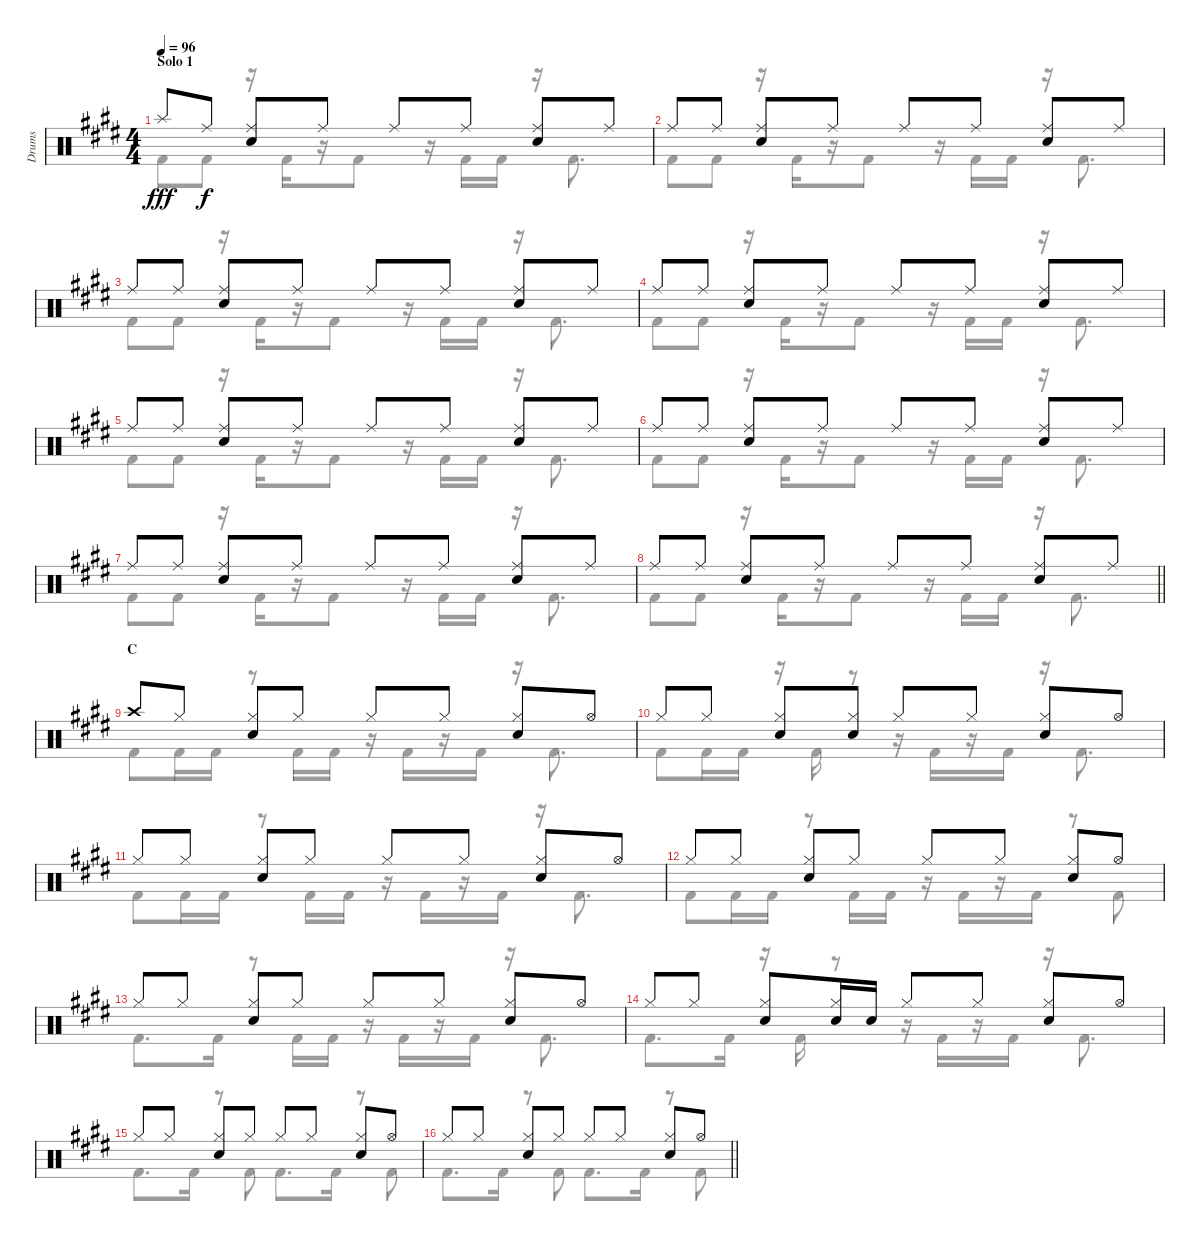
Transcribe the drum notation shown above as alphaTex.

\track ("Drums" "Drums") {instrument percussion}
\staff {score}
\articulation defaults
\voice
\ts (4 4)
\section ("" "Solo 1")
\tempo 96
\clef neutral
\ks e "Splash (hit)".8{dy fff} "Ride (middle)".8{dy f}
("Ride (middle)" "Snare (hit) 2").8 "Ride (middle)".8 "Ride (middle)".8 "Ride (middle)".8 ("Ride (middle)" "Snare (hit) 2").8 "Ride (middle)".8 |
"Ride (middle)".8 "Ride (middle)".8 ("Ride (middle)" "Snare (hit) 2").8 "Ride (middle)".8 "Ride (middle)".8 "Ride (middle)".8 ("Ride (middle)" "Snare (hit) 2").8 "Ride (middle)".8 |
"Ride (middle)".8 "Ride (middle)".8 ("Ride (middle)" "Snare (hit) 2").8 "Ride (middle)".8 "Ride (middle)".8 "Ride (middle)".8 ("Ride (middle)" "Snare (hit) 2").8 "Ride (middle)".8 |
"Ride (middle)".8 "Ride (middle)".8 ("Ride (middle)" "Snare (hit) 2").8 "Ride (middle)".8 "Ride (middle)".8 "Ride (middle)".8 ("Ride (middle)" "Snare (hit) 2").8 "Ride (middle)".8 |
"Ride (middle)".8 "Ride (middle)".8 ("Ride (middle)" "Snare (hit) 2").8 "Ride (middle)".8 "Ride (middle)".8 "Ride (middle)".8 ("Ride (middle)" "Snare (hit) 2").8 "Ride (middle)".8 |
"Ride (middle)".8 "Ride (middle)".8 ("Ride (middle)" "Snare (hit) 2").8 "Ride (middle)".8 "Ride (middle)".8 "Ride (middle)".8 ("Ride (middle)" "Snare (hit) 2").8 "Ride (middle)".8 |
"Ride (middle)".8 "Ride (middle)".8 ("Ride (middle)" "Snare (hit) 2").8 "Ride (middle)".8 "Ride (middle)".8 "Ride (middle)".8 ("Ride (middle)" "Snare (hit) 2").8 "Ride (middle)".8 |
\barLineRight lightlight "Ride (middle)".8 "Ride (middle)".8
("Ride (middle)" "Snare (hit) 2").8 "Ride (middle)".8 "Ride (middle)".8 "Ride (middle)".8 ("Ride (middle)" "Snare (hit) 2").8 "Ride (middle)".8 |
\section ("" "C")
"Crash high (hit)".8 "Hi-Hat (closed)".8 ("Hi-Hat (closed)" "Snare (hit) 2").8 "Hi-Hat (closed)".8 "Hi-Hat (closed)".8 "Hi-Hat (closed)".8 ("Hi-Hat (closed)" "Snare (hit) 2").8 "Hi-Hat (open)".8 |
"Hi-Hat (closed)".8 "Hi-Hat (closed)".8 ("Hi-Hat (closed)" "Snare (hit) 2").8 ("Hi-Hat (closed)" "Snare (hit) 2").8 "Hi-Hat (closed)".8 "Hi-Hat (closed)".8 ("Hi-Hat (closed)" "Snare (hit) 2").8 "Hi-Hat (open)".8 |
"Hi-Hat (closed)".8 "Hi-Hat (closed)".8 ("Hi-Hat (closed)" "Snare (hit) 2").8 "Hi-Hat (closed)".8 "Hi-Hat (closed)".8 "Hi-Hat (closed)".8 ("Hi-Hat (closed)" "Snare (hit) 2").8 "Hi-Hat (open)".8 |
"Hi-Hat (closed)".8 "Hi-Hat (closed)".8 ("Hi-Hat (closed)" "Snare (hit) 2").8 "Hi-Hat (closed)".8 "Hi-Hat (closed)".8 "Hi-Hat (closed)".8 ("Hi-Hat (closed)" "Snare (hit) 2").8 "Hi-Hat (open)".8 |
"Hi-Hat (closed)".8 "Hi-Hat (closed)".8 ("Hi-Hat (closed)" "Snare (hit) 2").8 "Hi-Hat (closed)".8 "Hi-Hat (closed)".8 "Hi-Hat (closed)".8 ("Hi-Hat (closed)" "Snare (hit) 2").8 "Hi-Hat (open)".8 |
"Hi-Hat (closed)".8 "Hi-Hat (closed)".8 ("Hi-Hat (closed)" "Snare (hit) 2").8 ("Hi-Hat (closed)" "Snare (hit) 2").16 "Snare (hit) 2".16 "Hi-Hat (closed)".8 "Hi-Hat (closed)".8 ("Hi-Hat (closed)" "Snare (hit) 2").8 "Hi-Hat (open)".8 |
"Hi-Hat (closed)".8 "Hi-Hat (closed)".8 ("Hi-Hat (closed)" "Snare (hit) 2").8 "Hi-Hat (closed)".8 "Hi-Hat (closed)".8 "Hi-Hat (closed)".8 ("Hi-Hat (closed)" "Snare (hit) 2").8 "Hi-Hat (open)".8 |
\barLineRight lightlight "Hi-Hat (closed)".8 "Hi-Hat (closed)".8
("Hi-Hat (closed)" "Snare (hit) 2").8 "Hi-Hat (closed)".8 "Hi-Hat (closed)".8 "Hi-Hat (closed)".8 ("Hi-Hat (closed)" "Snare (hit) 2").8 "Hi-Hat (open)".8
\voice
\clef neutral
\ottava regular
\simile none
\ks e "Kick (hit) 2".8{dy fff} "Kick (hit) 2".8
r.16 "Kick (hit) 2".16 r.16 "Kick (hit) 2".8 r.16 "Kick (hit) 2".16 "Kick (hit) 2".16 r.16 "Kick (hit) 2".8{d} |
"Kick (hit) 2".8 "Kick (hit) 2".8 r.16 "Kick (hit) 2".16 r.16 "Kick (hit) 2".8 r.16 "Kick (hit) 2".16 "Kick (hit) 2".16 r.16 "Kick (hit) 2".8{d} |
"Kick (hit) 2".8 "Kick (hit) 2".8 r.16 "Kick (hit) 2".16 r.16 "Kick (hit) 2".8 r.16 "Kick (hit) 2".16 "Kick (hit) 2".16 r.16 "Kick (hit) 2".8{d} |
"Kick (hit) 2".8 "Kick (hit) 2".8 r.16 "Kick (hit) 2".16 r.16 "Kick (hit) 2".8 r.16 "Kick (hit) 2".16 "Kick (hit) 2".16 r.16 "Kick (hit) 2".8{d} |
"Kick (hit) 2".8 "Kick (hit) 2".8 r.16 "Kick (hit) 2".16 r.16 "Kick (hit) 2".8 r.16 "Kick (hit) 2".16 "Kick (hit) 2".16 r.16 "Kick (hit) 2".8{d} |
"Kick (hit) 2".8 "Kick (hit) 2".8 r.16 "Kick (hit) 2".16 r.16 "Kick (hit) 2".8 r.16 "Kick (hit) 2".16 "Kick (hit) 2".16 r.16 "Kick (hit) 2".8{d} |
"Kick (hit) 2".8 "Kick (hit) 2".8 r.16 "Kick (hit) 2".16 r.16 "Kick (hit) 2".8 r.16 "Kick (hit) 2".16 "Kick (hit) 2".16 r.16 "Kick (hit) 2".8{d} |
\barLineRight lightlight "Kick (hit) 2".8 "Kick (hit) 2".8
r.16 "Kick (hit) 2".16 r.16 "Kick (hit) 2".8 r.16 "Kick (hit) 2".16 "Kick (hit) 2".16 r.16 "Kick (hit) 2".8{d} |
"Kick (hit) 2".8 "Kick (hit) 2".16 "Kick (hit) 2".16 r.8 "Kick (hit) 2".16 "Kick (hit) 2".16 r.16 "Kick (hit) 2".16 r.16 "Kick (hit) 2".16 r.16 "Kick (hit) 2".8{d} |
"Kick (hit) 2".8 "Kick (hit) 2".16 "Kick (hit) 2".16 r.16 "Kick (hit) 2".16 r.8 r.16 "Kick (hit) 2".16 r.16 "Kick (hit) 2".16 r.16 "Kick (hit) 2".8{d} |
"Kick (hit) 2".8 "Kick (hit) 2".16 "Kick (hit) 2".16 r.8 "Kick (hit) 2".16 "Kick (hit) 2".16 r.16 "Kick (hit) 2".16 r.16 "Kick (hit) 2".16 r.16 "Kick (hit) 2".8{d} |
"Kick (hit) 2".8 "Kick (hit) 2".16 "Kick (hit) 2".16 r.8 "Kick (hit) 2".16 "Kick (hit) 2".16 r.16 "Kick (hit) 2".16 r.16 "Kick (hit) 2".16 r.8 "Kick (hit) 2".8 |
"Kick (hit) 2".8{d} "Kick (hit) 2".16 r.8 "Kick (hit) 2".16 "Kick (hit) 2".16 r.16 "Kick (hit) 2".16 r.16 "Kick (hit) 2".16 r.16 "Kick (hit) 2".8{d} |
"Kick (hit) 2".8{d} "Kick (hit) 2".16 r.16 "Kick (hit) 2".16 r.8 r.16 "Kick (hit) 2".16 r.16 "Kick (hit) 2".16 r.16 "Kick (hit) 2".8{d} |
"Kick (hit) 2".8{d} "Kick (hit) 2".16 r.8 "Kick (hit) 2".8 "Kick (hit) 2".8{d} "Kick (hit) 2".16 r.8 "Kick (hit) 2".8 |
\barLineRight lightlight "Kick (hit) 2".8{d} "Kick (hit) 2".16
r.8 "Kick (hit) 2".8 "Kick (hit) 2".8{d} "Kick (hit) 2".16 r.8 "Kick (hit) 2".8
